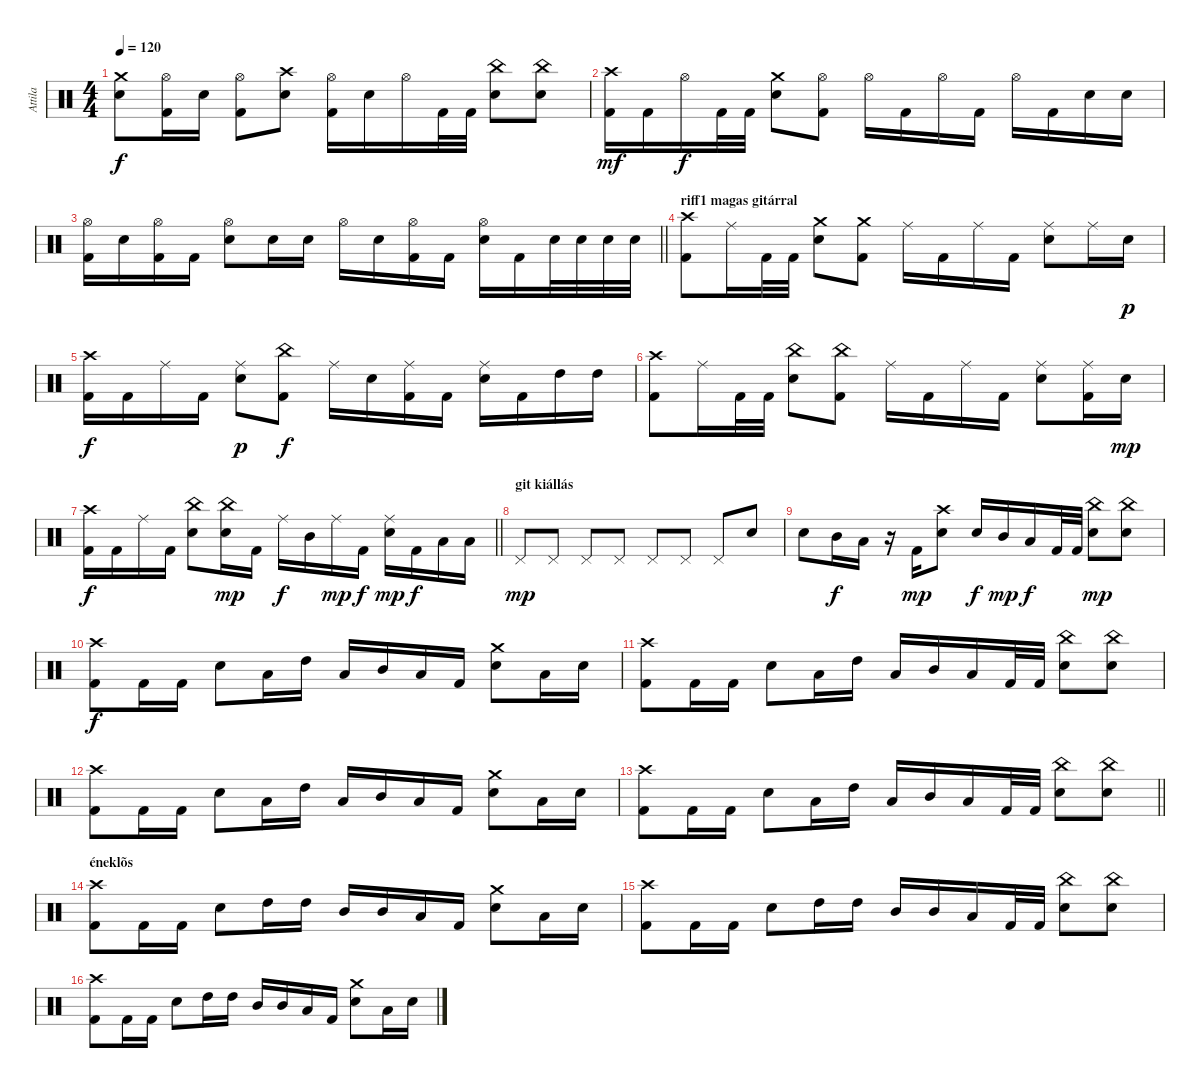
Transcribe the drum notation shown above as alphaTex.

\track ("Attila" "Attila") {instrument percussion}
\staff {score}
\articulation defaults
\ts (4 4)
\tempo 120
\clef neutral
\ks c
("Crash medium (hit)" "Electric Snare (hit)").8{dy f} ("Hi-Hat (open)" "Kick (hit) 2").16 "Electric Snare (hit)".16 ("Hi-Hat (open)" "Kick (hit) 2").8 ("Crash high (hit)" "Electric Snare (hit)").8 ("Hi-Hat (open)" "Kick (hit) 2").16 "Electric Snare (hit)".16 "Hi-Hat (open)".16 "Kick (hit) 2".32 "Kick (hit) 2".32 ("China (hit)" "Electric Snare (hit)").8 ("China (hit)" "Electric Snare (hit)").8 |
("Crash high (hit)" "Kick (hit) 2").16{dy mf} "Kick (hit) 2".16 "Hi-Hat (open)".16{dy f} "Kick (hit) 2".32 "Kick (hit) 2".32 ("Crash medium (hit)" "Electric Snare (hit)").8 ("Hi-Hat (open)" "Kick (hit) 2").8 "Hi-Hat (open)".16 "Kick (hit) 2".16 "Hi-Hat (open)".16 "Kick (hit) 2".16 "Hi-Hat (open)".16 "Kick (hit) 2".16 "Electric Snare (hit)".16 "Electric Snare (hit)".16 |
\barLineRight lightlight
("Hi-Hat (open)" "Kick (hit) 2").16 "Electric Snare (hit)".16 ("Hi-Hat (open)" "Kick (hit) 2").16 "Kick (hit) 2".16 ("Hi-Hat (open)" "Electric Snare (hit)").8 "Electric Snare (hit)".16 "Electric Snare (hit)".16 "Hi-Hat (open)".16 "Electric Snare (hit)".16 ("Hi-Hat (open)" "Kick (hit) 2").16 "Kick (hit) 2".16 ("Hi-Hat (open)" "Electric Snare (hit)").16 "Kick (hit) 2".16 "Electric Snare (hit)".32 "Electric Snare (hit)".32 "Electric Snare (hit)".32 "Electric Snare (hit)".32 |
\section ("" "riff1 magas gitárral")
("Crash high (hit)" "Kick (hit) 2").8 "Ride (middle)".16 "Kick (hit) 2".32 "Kick (hit) 2".32 ("Crash medium (hit)" "Electric Snare (hit)").8 ("Crash medium (hit)" "Kick (hit) 2").8 "Ride (middle)".16 "Kick (hit) 2".16 "Ride (middle)".16 "Kick (hit) 2".16 ("Ride (middle)" "Electric Snare (hit)").8 "Ride (middle)".16 "Electric Snare (hit)".16{dy p} |
("Crash high (hit)" "Kick (hit) 2").16{dy f} "Kick (hit) 2".16 "Ride (middle)".16 "Kick (hit) 2".16 ("Ride (middle)" "Electric Snare (hit)").8{dy p} ("China (hit)" "Kick (hit) 2").8{dy f} "Ride (middle)".16 "Electric Snare (hit)".16 ("Ride (middle)" "Kick (hit) 2").16 "Kick (hit) 2".16 ("Ride (middle)" "Electric Snare (hit)").16 "Kick (hit) 2".16 "High Tom (hit)".16 "High Tom (hit)".16 |
("Crash high (hit)" "Kick (hit) 2").8 "Ride (middle)".16 "Kick (hit) 2".32 "Kick (hit) 2".32 ("China (hit)" "Electric Snare (hit)").8 ("China (hit)" "Kick (hit) 2").8 "Ride (middle)".16 "Kick (hit) 2".16 "Ride (middle)".16 "Kick (hit) 2".16 ("Ride (middle)" "Electric Snare (hit)").8 ("Ride (middle)" "Kick (hit) 2").16 "Electric Snare (hit)".16{dy mp} |
\barLineRight lightlight
("Crash high (hit)" "Kick (hit) 2").16{dy f} "Kick (hit) 2".16 "Ride (middle)".16 "Kick (hit) 2".16 ("China (hit)" "Electric Snare (hit)").8 ("China (hit)" "Electric Snare (hit)").16{dy mp} "Kick (hit) 2".16 "Ride (middle)".16{dy f} "Mid Tom (hit)".16 "Ride (middle)".16{dy mp} "Kick (hit) 2".16{dy f} ("Ride (middle)" "Electric Snare (hit)").16{dy mp} "Kick (hit) 2".16{dy f} "Low Tom (hit)".16 "Low Tom (hit)".16 |
\section ("" "git kiállás")
"Pedal Hi-Hat (hit)".8{dy mp} "Pedal Hi-Hat (hit)".8 "Pedal Hi-Hat (hit)".8 "Pedal Hi-Hat (hit)".8 "Pedal Hi-Hat (hit)".8 "Pedal Hi-Hat (hit)".8 "Pedal Hi-Hat (hit)".8 "Electric Snare (hit)".8 |
"Electric Snare (hit)".8 "Mid Tom (hit)".16{dy f} "Low Tom (hit)".16 r.16 "Kick (hit) 2".16{dy mp} ("Crash high (hit)" "Electric Snare (hit)").8 "Electric Snare (hit)".16{dy f} "Mid Tom (hit)".16{dy mp} "Low Tom (hit)".16{dy f} "Kick (hit) 2".32 "Kick (hit) 2".32 ("China (hit)" "Electric Snare (hit)").8{dy mp} ("China (hit)" "Electric Snare (hit)").8 |
("Crash high (hit)" "Kick (hit) 2").8{dy f} "Kick (hit) 2".16 "Kick (hit) 2".16 "Electric Snare (hit)".8 "Low Tom (hit)".16 "High Tom (hit)".16 "Low Tom (hit)".16 "Mid Tom (hit)".16 "Low Tom (hit)".16 "Kick (hit) 2".16 ("Crash medium (hit)" "Electric Snare (hit)").8 "Low Tom (hit)".16 "Electric Snare (hit)".16 |
("Crash high (hit)" "Kick (hit) 2").8 "Kick (hit) 2".16 "Kick (hit) 2".16 "Electric Snare (hit)".8 "Low Tom (hit)".16 "High Tom (hit)".16 "Low Tom (hit)".16 "Mid Tom (hit)".16 "Low Tom (hit)".16 "Kick (hit) 2".32 "Kick (hit) 2".32 ("China (hit)" "Electric Snare (hit)").8 ("China (hit)" "Electric Snare (hit)").8 |
("Crash high (hit)" "Kick (hit) 2").8 "Kick (hit) 2".16 "Kick (hit) 2".16 "Electric Snare (hit)".8 "Low Tom (hit)".16 "High Tom (hit)".16 "Low Tom (hit)".16 "Mid Tom (hit)".16 "Low Tom (hit)".16 "Kick (hit) 2".16 ("Crash medium (hit)" "Electric Snare (hit)").8 "Low Tom (hit)".16 "Electric Snare (hit)".16 |
\barLineRight lightlight
("Crash high (hit)" "Kick (hit) 2").8 "Kick (hit) 2".16 "Kick (hit) 2".16 "Electric Snare (hit)".8 "Low Tom (hit)".16 "High Tom (hit)".16 "Low Tom (hit)".16 "Mid Tom (hit)".16 "Low Tom (hit)".16 "Kick (hit) 2".32 "Kick (hit) 2".32 ("China (hit)" "Electric Snare (hit)").8 ("China (hit)" "Electric Snare (hit)").8 |
\section ("" "éneklõs")
("Crash high (hit)" "Kick (hit) 2").8 "Kick (hit) 2".16 "Kick (hit) 2".16 "Electric Snare (hit)".8 "High Tom (hit)".16 "High Tom (hit)".16 "Mid Tom (hit)".16 "Mid Tom (hit)".16 "Low Tom (hit)".16 "Kick (hit) 2".16 ("Crash medium (hit)" "Electric Snare (hit)").8 "Low Tom (hit)".16 "Electric Snare (hit)".16 |
("Crash high (hit)" "Kick (hit) 2").8 "Kick (hit) 2".16 "Kick (hit) 2".16 "Electric Snare (hit)".8 "High Tom (hit)".16 "High Tom (hit)".16 "Mid Tom (hit)".16 "Mid Tom (hit)".16 "Low Tom (hit)".16 "Kick (hit) 2".32 "Kick (hit) 2".32 ("China (hit)" "Electric Snare (hit)").8 ("China (hit)" "Electric Snare (hit)").8 |
("Crash high (hit)" "Kick (hit) 2").8 "Kick (hit) 2".16 "Kick (hit) 2".16 "Electric Snare (hit)".8 "High Tom (hit)".16 "High Tom (hit)".16 "Mid Tom (hit)".16 "Mid Tom (hit)".16 "Low Tom (hit)".16 "Kick (hit) 2".16 ("Crash medium (hit)" "Electric Snare (hit)").8 "Low Tom (hit)".16 "Electric Snare (hit)".16
